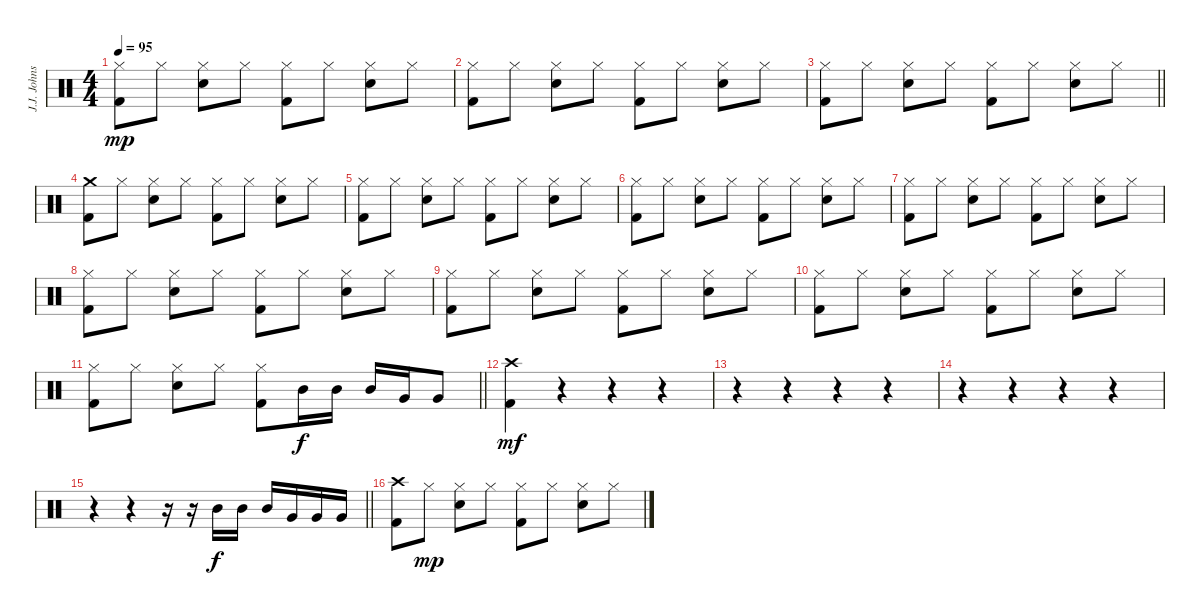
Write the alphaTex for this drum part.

\track ("J.J. Johnson" "J.J. Johns") {instrument percussion}
\staff {score}
\articulation defaults
\ts (4 4)
\tempo 95
\clef neutral
\ks c
("Hi-Hat (closed)" "Kick (hit) 2").8{dy mp} "Hi-Hat (closed)".8 ("Hi-Hat (closed)" "Electric Snare (hit)").8 "Hi-Hat (closed)".8 ("Hi-Hat (closed)" "Kick (hit) 2").8 "Hi-Hat (closed)".8 ("Hi-Hat (closed)" "Electric Snare (hit)").8 "Hi-Hat (closed)".8 |
("Hi-Hat (closed)" "Kick (hit) 2").8 "Hi-Hat (closed)".8 ("Hi-Hat (closed)" "Electric Snare (hit)").8 "Hi-Hat (closed)".8 ("Hi-Hat (closed)" "Kick (hit) 2").8 "Hi-Hat (closed)".8 ("Hi-Hat (closed)" "Electric Snare (hit)").8 "Hi-Hat (closed)".8 |
\barLineRight lightlight
("Hi-Hat (closed)" "Kick (hit) 2").8 "Hi-Hat (closed)".8 ("Hi-Hat (closed)" "Electric Snare (hit)").8 "Hi-Hat (closed)".8 ("Hi-Hat (closed)" "Kick (hit) 2").8 "Hi-Hat (closed)".8 ("Hi-Hat (closed)" "Electric Snare (hit)").8 "Hi-Hat (closed)".8 |
("Crash medium (hit)" "Kick (hit) 2").8 "Hi-Hat (closed)".8 ("Hi-Hat (closed)" "Electric Snare (hit)").8 "Hi-Hat (closed)".8 ("Hi-Hat (closed)" "Kick (hit) 2").8 "Hi-Hat (closed)".8 ("Hi-Hat (closed)" "Electric Snare (hit)").8 "Hi-Hat (closed)".8 |
("Hi-Hat (closed)" "Kick (hit) 2").8 "Hi-Hat (closed)".8 ("Hi-Hat (closed)" "Electric Snare (hit)").8 "Hi-Hat (closed)".8 ("Hi-Hat (closed)" "Kick (hit) 2").8 "Hi-Hat (closed)".8 ("Hi-Hat (closed)" "Electric Snare (hit)").8 "Hi-Hat (closed)".8 |
("Hi-Hat (closed)" "Kick (hit) 2").8 "Hi-Hat (closed)".8 ("Hi-Hat (closed)" "Electric Snare (hit)").8 "Hi-Hat (closed)".8 ("Hi-Hat (closed)" "Kick (hit) 2").8 "Hi-Hat (closed)".8 ("Hi-Hat (closed)" "Electric Snare (hit)").8 "Hi-Hat (closed)".8 |
("Hi-Hat (closed)" "Kick (hit) 2").8 "Hi-Hat (closed)".8 ("Hi-Hat (closed)" "Electric Snare (hit)").8 "Hi-Hat (closed)".8 ("Hi-Hat (closed)" "Kick (hit) 2").8 "Hi-Hat (closed)".8 ("Hi-Hat (closed)" "Electric Snare (hit)").8 "Hi-Hat (closed)".8 |
("Hi-Hat (closed)" "Kick (hit) 2").8 "Hi-Hat (closed)".8 ("Hi-Hat (closed)" "Electric Snare (hit)").8 "Hi-Hat (closed)".8 ("Hi-Hat (closed)" "Kick (hit) 2").8 "Hi-Hat (closed)".8 ("Hi-Hat (closed)" "Electric Snare (hit)").8 "Hi-Hat (closed)".8 |
("Hi-Hat (closed)" "Kick (hit) 2").8 "Hi-Hat (closed)".8 ("Hi-Hat (closed)" "Electric Snare (hit)").8 "Hi-Hat (closed)".8 ("Hi-Hat (closed)" "Kick (hit) 2").8 "Hi-Hat (closed)".8 ("Hi-Hat (closed)" "Electric Snare (hit)").8 "Hi-Hat (closed)".8 |
("Hi-Hat (closed)" "Kick (hit) 2").8 "Hi-Hat (closed)".8 ("Hi-Hat (closed)" "Electric Snare (hit)").8 "Hi-Hat (closed)".8 ("Hi-Hat (closed)" "Kick (hit) 2").8 "Hi-Hat (closed)".8 ("Hi-Hat (closed)" "Electric Snare (hit)").8 "Hi-Hat (closed)".8 |
\barLineRight lightlight
("Hi-Hat (closed)" "Kick (hit) 2").8 "Hi-Hat (closed)".8 ("Hi-Hat (closed)" "Electric Snare (hit)").8 "Hi-Hat (closed)".8 ("Hi-Hat (closed)" "Kick (hit) 2").8 "Mid Tom (hit)".16{dy f} "Mid Tom (hit)".16 "Mid Tom (hit)".16 "Very Low Tom (hit)".16 "Very Low Tom (hit)".8 |
("Crash high (hit)" "Kick (hit) 2").4{dy mf} r.4 r.4 r.4 |
r.4 r.4 r.4 r.4 |
r.4 r.4 r.4 r.4 |
\barLineRight lightlight
r.4 r.4 r.16 r.16 "Mid Tom (hit)".16{dy f} "Mid Tom (hit)".16 "Mid Tom (hit)".16 "Very Low Tom (hit)".16 "Very Low Tom (hit)".16 "Very Low Tom (hit)".16 |
("Crash high (hit)" "Kick (hit) 2").8 "Hi-Hat (closed)".8{dy mp} ("Hi-Hat (closed)" "Electric Snare (hit)").8 "Hi-Hat (closed)".8 ("Hi-Hat (closed)" "Kick (hit) 2").8 "Hi-Hat (closed)".8 ("Hi-Hat (closed)" "Electric Snare (hit)").8 "Hi-Hat (closed)".8
